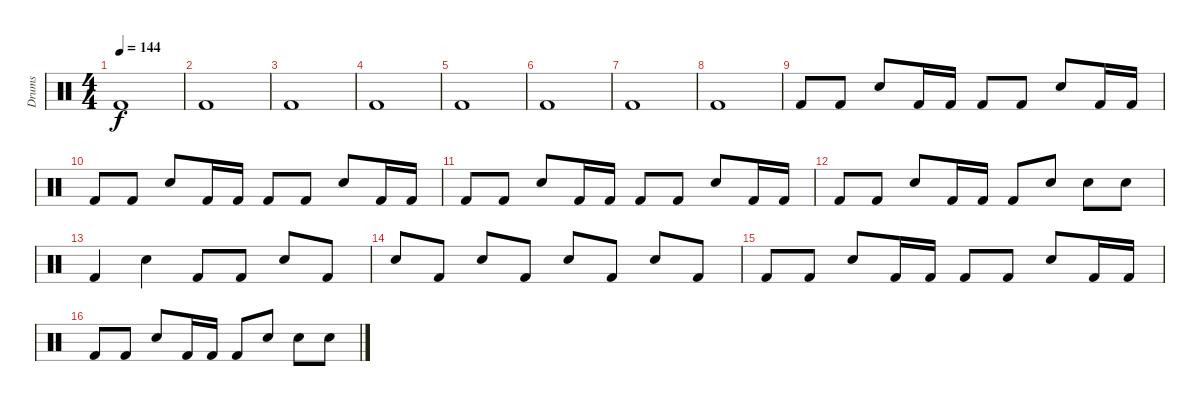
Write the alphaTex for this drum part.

\track ("Drums" "Drums") {instrument percussion}
\staff {score}
\articulation defaults
\ts (4 4)
\tempo 144
\clef neutral
\ks c "Kick (hit) 2".1{dy f}
|
"Kick (hit) 2".1 |
"Kick (hit) 2".1 |
"Kick (hit) 2".1 |
"Kick (hit) 2".1 |
"Kick (hit) 2".1 |
"Kick (hit) 2".1 |
"Kick (hit) 2".1 |
"Kick (hit) 2".8 "Kick (hit) 2".8 "Electric Snare (hit)".8 "Kick (hit) 2".16 "Kick (hit) 2".16 "Kick (hit) 2".8 "Kick (hit) 2".8 "Electric Snare (hit)".8 "Kick (hit) 2".16 "Kick (hit) 2".16 |
"Kick (hit) 2".8 "Kick (hit) 2".8 "Electric Snare (hit)".8 "Kick (hit) 2".16 "Kick (hit) 2".16 "Kick (hit) 2".8 "Kick (hit) 2".8 "Electric Snare (hit)".8 "Kick (hit) 2".16 "Kick (hit) 2".16 |
"Kick (hit) 2".8 "Kick (hit) 2".8 "Electric Snare (hit)".8 "Kick (hit) 2".16 "Kick (hit) 2".16 "Kick (hit) 2".8 "Kick (hit) 2".8 "Electric Snare (hit)".8 "Kick (hit) 2".16 "Kick (hit) 2".16 |
"Kick (hit) 2".8 "Kick (hit) 2".8 "Electric Snare (hit)".8 "Kick (hit) 2".16 "Kick (hit) 2".16 "Kick (hit) 2".8 "Electric Snare (hit)".8 "Electric Snare (hit)".8 "Electric Snare (hit)".8 |
"Kick (hit) 2".4 "Electric Snare (hit)".4 "Kick (hit) 2".8 "Kick (hit) 2".8 "Electric Snare (hit)".8 "Kick (hit) 2".8 |
"Electric Snare (hit)".8 "Kick (hit) 2".8 "Electric Snare (hit)".8 "Kick (hit) 2".8 "Electric Snare (hit)".8 "Kick (hit) 2".8 "Electric Snare (hit)".8 "Kick (hit) 2".8 |
"Kick (hit) 2".8 "Kick (hit) 2".8 "Electric Snare (hit)".8 "Kick (hit) 2".16 "Kick (hit) 2".16 "Kick (hit) 2".8 "Kick (hit) 2".8 "Electric Snare (hit)".8 "Kick (hit) 2".16 "Kick (hit) 2".16 |
"Kick (hit) 2".8 "Kick (hit) 2".8 "Electric Snare (hit)".8 "Kick (hit) 2".16 "Kick (hit) 2".16 "Kick (hit) 2".8 "Electric Snare (hit)".8 "Electric Snare (hit)".8 "Electric Snare (hit)".8
